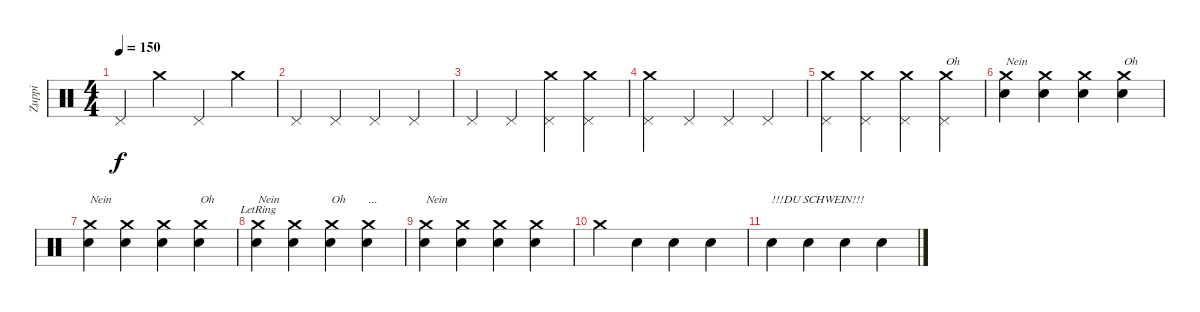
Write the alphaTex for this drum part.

\track ("Zuppi" "Zuppi") {instrument percussion}
\staff {score}
\articulation defaults
\ts (4 4)
\tempo 150
\clef neutral
\ks c "Pedal Hi-Hat (hit)".4{dy f} "Crash medium (hit)".4 "Pedal Hi-Hat (hit)".4 "Crash medium (hit)".4
|
"Pedal Hi-Hat (hit)".4 "Pedal Hi-Hat (hit)".4 "Pedal Hi-Hat (hit)".4 "Pedal Hi-Hat (hit)".4 |
"Pedal Hi-Hat (hit)".4 "Pedal Hi-Hat (hit)".4 ("Crash medium (hit)" "Pedal Hi-Hat (hit)").4 ("Crash medium (hit)" "Pedal Hi-Hat (hit)").4 |
("Crash medium (hit)" "Pedal Hi-Hat (hit)").4 "Pedal Hi-Hat (hit)".4 "Pedal Hi-Hat (hit)".4 "Pedal Hi-Hat (hit)".4 |
("Pedal Hi-Hat (hit)" "Crash medium (hit)").4 ("Pedal Hi-Hat (hit)" "Crash medium (hit)").4 ("Pedal Hi-Hat (hit)" "Crash medium (hit)").4 ("Pedal Hi-Hat (hit)" "Crash medium (hit)").4{txt "Oh"} |
("Snare (hit) 2" "Crash medium (hit)").4{txt "Nein"} ("Snare (hit) 2" "Crash medium (hit)").4 ("Snare (hit) 2" "Crash medium (hit)").4 ("Snare (hit) 2" "Crash medium (hit)").4{txt "Oh"} |
("Snare (hit) 2" "Crash medium (hit)").4{txt "Nein"} ("Snare (hit) 2" "Crash medium (hit)").4 ("Snare (hit) 2" "Crash medium (hit)").4 ("Snare (hit) 2" "Crash medium (hit)").4{txt "Oh"} |
("Snare (hit) 2" "Crash medium (hit)"{lr}).4{txt "Nein"} ("Snare (hit) 2" "Crash medium (hit)").4 ("Snare (hit) 2" "Crash medium (hit)").4{txt "Oh"} ("Snare (hit) 2" "Crash medium (hit)").4{txt "..."} |
("Snare (hit) 2" "Crash medium (hit)").4{txt "Nein"} ("Snare (hit) 2" "Crash medium (hit)").4 ("Snare (hit) 2" "Crash medium (hit)").4 ("Snare (hit) 2" "Crash medium (hit)").4 |
"Crash medium (hit)".4 "Snare (hit)".4 "Snare (hit)".4 "Snare (hit)".4 |
"Snare (hit)".4{txt "!!!DU SCHWEIN!!!"} "Snare (hit)".4 "Snare (hit)".4 "Snare (hit)".4
